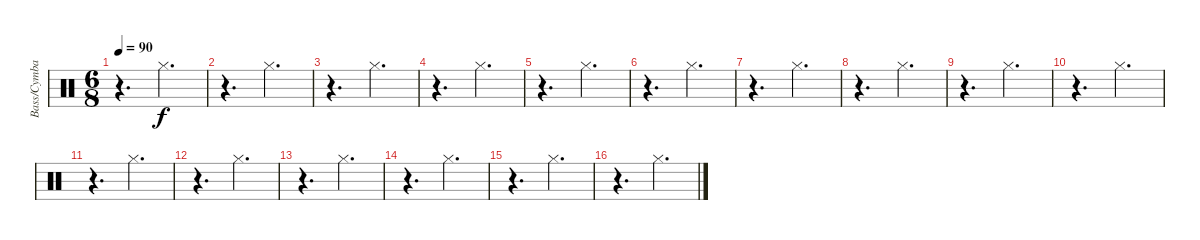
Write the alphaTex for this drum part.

\track ("Bass/Cymbal" "Bass/Cymba") {instrument percussion}
\staff {score}
\articulation defaults
\ts (6 8)
\tempo 90
\clef neutral
\ks c
r.4{d dy f} "Hi-Hat (closed)".4{d} |
r.4{d} "Hi-Hat (closed)".4{d} |
r.4{d} "Hi-Hat (closed)".4{d} |
r.4{d} "Hi-Hat (closed)".4{d} |
r.4{d} "Hi-Hat (closed)".4{d} |
r.4{d} "Hi-Hat (closed)".4{d} |
r.4{d} "Hi-Hat (closed)".4{d} |
r.4{d} "Hi-Hat (closed)".4{d} |
r.4{d} "Hi-Hat (closed)".4{d} |
r.4{d} "Hi-Hat (closed)".4{d} |
r.4{d} "Hi-Hat (closed)".4{d} |
r.4{d} "Hi-Hat (closed)".4{d} |
r.4{d} "Hi-Hat (closed)".4{d} |
r.4{d} "Hi-Hat (closed)".4{d} |
r.4{d} "Hi-Hat (closed)".4{d} |
r.4{d} "Hi-Hat (closed)".4{d}
